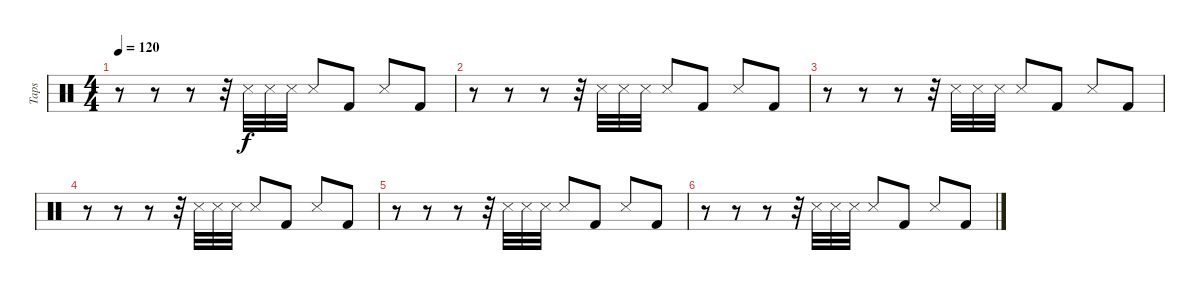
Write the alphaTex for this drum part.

\track ("Taps" "Taps") {instrument percussion}
\staff {score}
\articulation defaults
\ts (4 4)
\tempo 120
\clef neutral
\ks c
r.8{dy f} r.8 r.8 r.32 "Snare (side stick) 3".32 "Snare (side stick) 3".32 "Snare (side stick) 3".32 "Snare (side stick) 3".8 "Kick (hit) 2".8 "Snare (side stick) 3".8 "Kick (hit) 2".8 |
r.8 r.8 r.8 r.32 "Snare (side stick) 3".32 "Snare (side stick) 3".32 "Snare (side stick) 3".32 "Snare (side stick) 3".8 "Kick (hit) 2".8 "Snare (side stick) 3".8 "Kick (hit) 2".8 |
r.8 r.8 r.8 r.32 "Snare (side stick) 3".32 "Snare (side stick) 3".32 "Snare (side stick) 3".32 "Snare (side stick) 3".8 "Kick (hit) 2".8 "Snare (side stick) 3".8 "Kick (hit) 2".8 |
r.8 r.8 r.8 r.32 "Snare (side stick) 3".32 "Snare (side stick) 3".32 "Snare (side stick) 3".32 "Snare (side stick) 3".8 "Kick (hit) 2".8 "Snare (side stick) 3".8 "Kick (hit) 2".8 |
r.8 r.8 r.8 r.32 "Snare (side stick) 3".32 "Snare (side stick) 3".32 "Snare (side stick) 3".32 "Snare (side stick) 3".8 "Kick (hit) 2".8 "Snare (side stick) 3".8 "Kick (hit) 2".8 |
r.8 r.8 r.8 r.32 "Snare (side stick) 3".32 "Snare (side stick) 3".32 "Snare (side stick) 3".32 "Snare (side stick) 3".8 "Kick (hit) 2".8 "Snare (side stick) 3".8 "Kick (hit) 2".8
